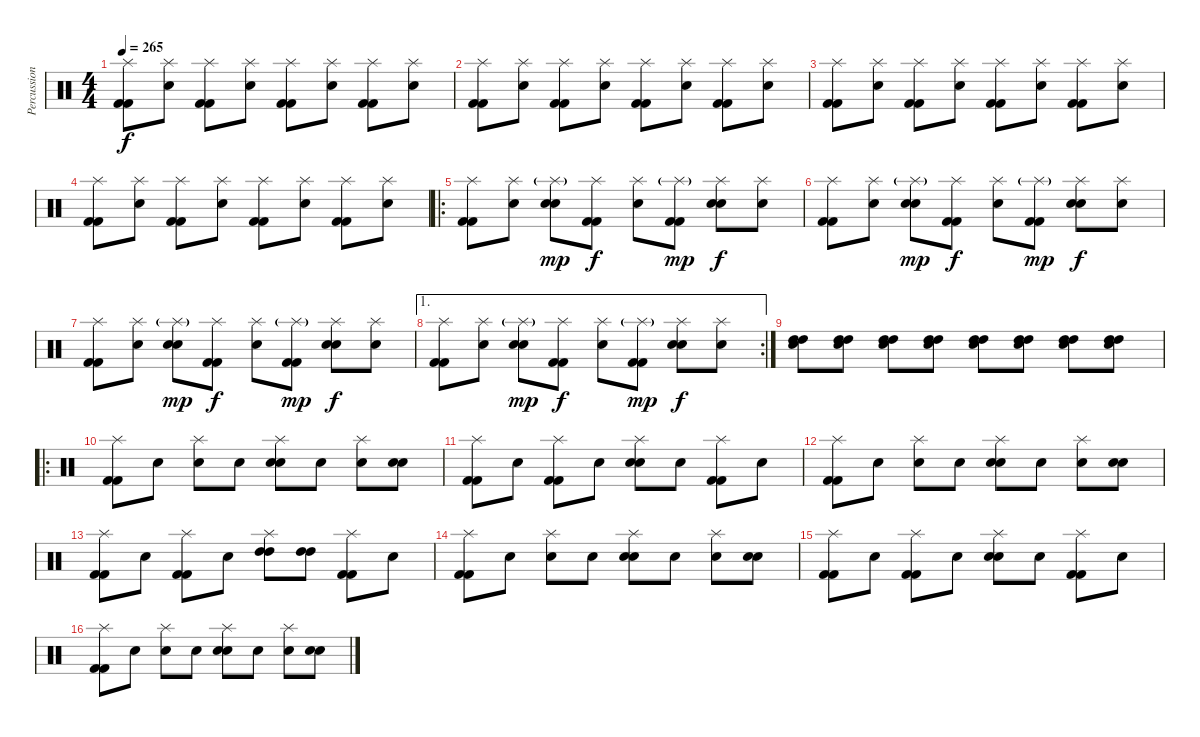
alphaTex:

\track ("Percussion" "Percussion") {instrument percussion}
\staff {score}
\articulation defaults
\ts (4 4)
\tempo 265
\clef neutral
\ks c
("Splash (hit)" "Kick (hit) 2" "Kick (hit) 2").8{dy f} ("Splash (hit)" "Snare (hit)").8 ("Splash (hit)" "Kick (hit) 2" "Kick (hit) 2").8 ("Splash (hit)" "Snare (hit)").8 ("Splash (hit)" "Kick (hit) 2" "Kick (hit) 2").8 ("Splash (hit)" "Snare (hit)").8 ("Splash (hit)" "Kick (hit) 2" "Kick (hit) 2").8 ("Splash (hit)" "Snare (hit)").8 |
("Splash (hit)" "Kick (hit) 2" "Kick (hit) 2").8 ("Splash (hit)" "Snare (hit)").8 ("Splash (hit)" "Kick (hit) 2" "Kick (hit) 2").8 ("Splash (hit)" "Snare (hit)").8 ("Splash (hit)" "Kick (hit) 2" "Kick (hit) 2").8 ("Splash (hit)" "Snare (hit)").8 ("Splash (hit)" "Kick (hit) 2" "Kick (hit) 2").8 ("Splash (hit)" "Snare (hit)").8 |
("Splash (hit)" "Kick (hit) 2" "Kick (hit) 2").8 ("Splash (hit)" "Snare (hit)").8 ("Splash (hit)" "Kick (hit) 2" "Kick (hit) 2").8 ("Splash (hit)" "Snare (hit)").8 ("Splash (hit)" "Kick (hit) 2" "Kick (hit) 2").8 ("Splash (hit)" "Snare (hit)").8 ("Splash (hit)" "Kick (hit) 2" "Kick (hit) 2").8 ("Splash (hit)" "Snare (hit)").8 |
("Splash (hit)" "Kick (hit) 2" "Kick (hit) 2").8 ("Splash (hit)" "Snare (hit)").8 ("Splash (hit)" "Kick (hit) 2" "Kick (hit) 2").8 ("Splash (hit)" "Snare (hit)").8 ("Splash (hit)" "Kick (hit) 2" "Kick (hit) 2").8 ("Splash (hit)" "Snare (hit)").8 ("Splash (hit)" "Kick (hit) 2" "Kick (hit) 2").8 ("Splash (hit)" "Snare (hit)").8 |
\ro
("Splash (hit)" "Kick (hit) 2" "Kick (hit) 2").8 ("Splash (hit)" "Snare (hit)").8 ("Splash (hit)"{g} "Electric Snare (hit)" "Electric Snare (hit)").8{dy mp} ("Splash (hit)" "Kick (hit) 2" "Kick (hit) 2").8{dy f} ("Splash (hit)" "Snare (hit)").8 ("Splash (hit)"{g} "Kick (hit) 2" "Kick (hit) 2").8{dy mp} ("Splash (hit)" "Electric Snare (hit)" "Electric Snare (hit)").8{dy f} ("Splash (hit)" "Snare (hit)").8 |
("Splash (hit)" "Kick (hit) 2" "Kick (hit) 2").8 ("Splash (hit)" "Snare (hit)").8 ("Splash (hit)"{g} "Electric Snare (hit)" "Electric Snare (hit)").8{dy mp} ("Splash (hit)" "Kick (hit) 2" "Kick (hit) 2").8{dy f} ("Splash (hit)" "Snare (hit)").8 ("Splash (hit)"{g} "Kick (hit) 2" "Kick (hit) 2").8{dy mp} ("Splash (hit)" "Electric Snare (hit)" "Electric Snare (hit)").8{dy f} ("Splash (hit)" "Snare (hit)").8 |
("Splash (hit)" "Kick (hit) 2" "Kick (hit) 2").8 ("Splash (hit)" "Snare (hit)").8 ("Splash (hit)"{g} "Electric Snare (hit)" "Electric Snare (hit)").8{dy mp} ("Splash (hit)" "Kick (hit) 2" "Kick (hit) 2").8{dy f} ("Splash (hit)" "Snare (hit)").8 ("Splash (hit)"{g} "Kick (hit) 2" "Kick (hit) 2").8{dy mp} ("Splash (hit)" "Electric Snare (hit)" "Electric Snare (hit)").8{dy f} ("Splash (hit)" "Snare (hit)").8 |
\ae 1
\rc 2
("Splash (hit)" "Kick (hit) 2" "Kick (hit) 2").8 ("Splash (hit)" "Snare (hit)").8 ("Splash (hit)"{g} "Electric Snare (hit)" "Electric Snare (hit)").8{dy mp} ("Splash (hit)" "Kick (hit) 2" "Kick (hit) 2").8{dy f} ("Splash (hit)" "Snare (hit)").8 ("Splash (hit)"{g} "Kick (hit) 2" "Kick (hit) 2").8{dy mp} ("Splash (hit)" "Electric Snare (hit)" "Electric Snare (hit)").8{dy f} ("Splash (hit)" "Snare (hit)").8 |
("High Tom (hit)" "High Tom (hit)" "Electric Snare (hit)").8 ("High Tom (hit)" "High Tom (hit)" "Electric Snare (hit)").8 ("High Tom (hit)" "High Tom (hit)" "Electric Snare (hit)").8 ("High Tom (hit)" "High Tom (hit)" "Electric Snare (hit)").8 ("High Tom (hit)" "High Tom (hit)" "Electric Snare (hit)").8 ("High Tom (hit)" "High Tom (hit)" "Electric Snare (hit)").8 ("High Tom (hit)" "High Tom (hit)" "Electric Snare (hit)").8 ("High Tom (hit)" "High Tom (hit)" "Electric Snare (hit)").8 |
\ro
("Splash (hit)" "Kick (hit) 2" "Kick (hit) 2").8 "Snare (hit)".8 ("Splash (hit)" "Snare (hit)").8 "Snare (hit)".8 ("Splash (hit)" "Electric Snare (hit)" "Electric Snare (hit)").8 "Snare (hit)".8 ("Splash (hit)" "Snare (hit)").8 ("Electric Snare (hit)" "Electric Snare (hit)").8 |
("Splash (hit)" "Kick (hit) 2" "Kick (hit) 2").8 "Snare (hit)".8 ("Splash (hit)" "Kick (hit) 2" "Kick (hit) 2").8 "Snare (hit)".8 ("Splash (hit)" "Electric Snare (hit)" "Electric Snare (hit)").8 "Snare (hit)".8 ("Splash (hit)" "Kick (hit) 2" "Kick (hit) 2").8 "Snare (hit)".8 |
("Splash (hit)" "Kick (hit) 2" "Kick (hit) 2").8 "Snare (hit)".8 ("Splash (hit)" "Snare (hit)").8 "Snare (hit)".8 ("Splash (hit)" "Electric Snare (hit)" "Electric Snare (hit)").8 "Snare (hit)".8 ("Splash (hit)" "Snare (hit)").8 ("Electric Snare (hit)" "Electric Snare (hit)").8 |
("Splash (hit)" "Kick (hit) 2" "Kick (hit) 2").8 "Snare (hit)".8 ("Splash (hit)" "Kick (hit) 2" "Kick (hit) 2").8 "Snare (hit)".8 ("Splash (hit)" "High Tom (hit)" "High Tom (hit)").8 ("High Tom (hit)" "High Tom (hit)").8 ("Splash (hit)" "Kick (hit) 2" "Kick (hit) 2").8 "Snare (hit)".8 |
("Splash (hit)" "Kick (hit) 2" "Kick (hit) 2").8 "Snare (hit)".8 ("Splash (hit)" "Snare (hit)").8 "Snare (hit)".8 ("Splash (hit)" "Electric Snare (hit)" "Electric Snare (hit)").8 "Snare (hit)".8 ("Splash (hit)" "Snare (hit)").8 ("Electric Snare (hit)" "Electric Snare (hit)").8 |
("Splash (hit)" "Kick (hit) 2" "Kick (hit) 2").8 "Snare (hit)".8 ("Splash (hit)" "Kick (hit) 2" "Kick (hit) 2").8 "Snare (hit)".8 ("Splash (hit)" "Electric Snare (hit)" "Electric Snare (hit)").8 "Snare (hit)".8 ("Splash (hit)" "Kick (hit) 2" "Kick (hit) 2").8 "Snare (hit)".8 |
("Splash (hit)" "Kick (hit) 2" "Kick (hit) 2").8 "Snare (hit)".8 ("Splash (hit)" "Snare (hit)").8 "Snare (hit)".8 ("Splash (hit)" "Electric Snare (hit)" "Electric Snare (hit)").8 "Snare (hit)".8 ("Splash (hit)" "Snare (hit)").8 ("Electric Snare (hit)" "Electric Snare (hit)").8
